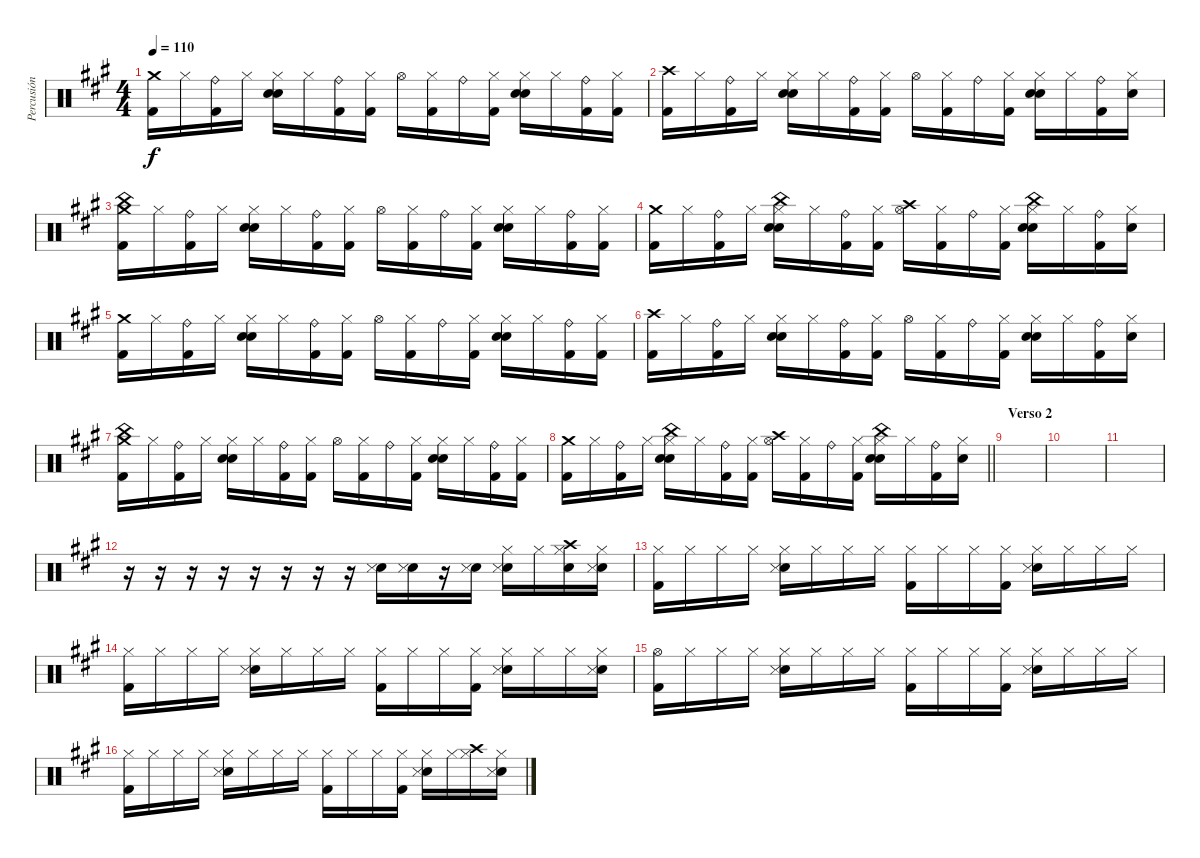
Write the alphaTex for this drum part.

\track ("Percusión" "Percusión") {instrument percussion}
\staff {score}
\articulation defaults
\ts (4 4)
\tempo 110
\clef neutral
\ks a
("Crash medium (hit)" "Kick (hit) 2").16{dy f} "Hi-Hat (closed)".16 ("Ride (bell)" "Kick (hit) 2").16 "Hi-Hat (closed)".16 ("Hi-Hat (closed)" "Hand Clap (hit)" "Electric Snare (hit)").16 "Hi-Hat (closed)".16 ("Ride (bell)" "Kick (hit) 2").16 ("Hi-Hat (closed)" "Kick (hit) 2").16 "Hi-Hat (open)".16 ("Hi-Hat (closed)" "Kick (hit) 2").16 "Ride (bell)".16 ("Hi-Hat (closed)" "Kick (hit) 2").16 ("Hi-Hat (closed)" "Hand Clap (hit)" "Electric Snare (hit)").16 "Hi-Hat (closed)".16 ("Ride (bell)" "Kick (hit) 2").16 ("Hi-Hat (closed)" "Kick (hit) 2").16 |
("Crash high (hit)" "Kick (hit) 2").16 "Hi-Hat (closed)".16 ("Ride (bell)" "Kick (hit) 2").16 "Hi-Hat (closed)".16 ("Hi-Hat (closed)" "Hand Clap (hit)" "Electric Snare (hit)").16 "Hi-Hat (closed)".16 ("Ride (bell)" "Kick (hit) 2").16 ("Hi-Hat (closed)" "Kick (hit) 2").16 "Hi-Hat (open)".16 ("Hi-Hat (closed)" "Kick (hit) 2").16 "Ride (bell)".16 ("Hi-Hat (closed)" "Kick (hit) 2").16 ("Hi-Hat (closed)" "Hand Clap (hit)" "Electric Snare (hit)").16 "Hi-Hat (closed)".16 ("Ride (bell)" "Kick (hit) 2").16 ("Hi-Hat (closed)" "Hand Clap (hit)").16 |
("Crash medium (hit)" "China (hit)" "Kick (hit) 2").16 "Hi-Hat (closed)".16 ("Ride (bell)" "Kick (hit) 2").16 "Hi-Hat (closed)".16 ("Hi-Hat (closed)" "Hand Clap (hit)" "Electric Snare (hit)").16 "Hi-Hat (closed)".16 ("Ride (bell)" "Kick (hit) 2").16 ("Hi-Hat (closed)" "Kick (hit) 2").16 "Hi-Hat (open)".16 ("Hi-Hat (closed)" "Kick (hit) 2").16 "Ride (bell)".16 ("Hi-Hat (closed)" "Kick (hit) 2").16 ("Hi-Hat (closed)" "Hand Clap (hit)" "Electric Snare (hit)").16 "Hi-Hat (closed)".16 ("Ride (bell)" "Kick (hit) 2").16 ("Hi-Hat (closed)" "Kick (hit) 2").16 |
("Crash medium (hit)" "Kick (hit) 2").16 "Hi-Hat (closed)".16 ("Ride (bell)" "Kick (hit) 2").16 "Hi-Hat (closed)".16 ("China (hit)" "Hi-Hat (closed)" "Hand Clap (hit)" "Electric Snare (hit)").16 "Hi-Hat (closed)".16 ("Ride (bell)" "Kick (hit) 2").16 ("Hi-Hat (closed)" "Kick (hit) 2").16 ("Crash high (hit)" "Hi-Hat (open)").16 ("Hi-Hat (closed)" "Kick (hit) 2").16 "Ride (bell)".16 ("Hi-Hat (closed)" "Kick (hit) 2").16 ("China (hit)" "Hi-Hat (closed)" "Hand Clap (hit)" "Electric Snare (hit)").16 "Hi-Hat (closed)".16 ("Ride (bell)" "Kick (hit) 2").16 ("Hi-Hat (closed)" "Hand Clap (hit)").16 |
("Crash medium (hit)" "Kick (hit) 2").16 "Hi-Hat (closed)".16 ("Ride (bell)" "Kick (hit) 2").16 "Hi-Hat (closed)".16 ("Hi-Hat (closed)" "Hand Clap (hit)" "Electric Snare (hit)").16 "Hi-Hat (closed)".16 ("Ride (bell)" "Kick (hit) 2").16 ("Hi-Hat (closed)" "Kick (hit) 2").16 "Hi-Hat (open)".16 ("Hi-Hat (closed)" "Kick (hit) 2").16 "Ride (bell)".16 ("Hi-Hat (closed)" "Kick (hit) 2").16 ("Hi-Hat (closed)" "Hand Clap (hit)" "Electric Snare (hit)").16 "Hi-Hat (closed)".16 ("Ride (bell)" "Kick (hit) 2").16 ("Hi-Hat (closed)" "Kick (hit) 2").16 |
("Crash high (hit)" "Kick (hit) 2").16 "Hi-Hat (closed)".16 ("Ride (bell)" "Kick (hit) 2").16 "Hi-Hat (closed)".16 ("Hi-Hat (closed)" "Hand Clap (hit)" "Electric Snare (hit)").16 "Hi-Hat (closed)".16 ("Ride (bell)" "Kick (hit) 2").16 ("Hi-Hat (closed)" "Kick (hit) 2").16 "Hi-Hat (open)".16 ("Hi-Hat (closed)" "Kick (hit) 2").16 "Ride (bell)".16 ("Hi-Hat (closed)" "Kick (hit) 2").16 ("Hi-Hat (closed)" "Hand Clap (hit)" "Electric Snare (hit)").16 "Hi-Hat (closed)".16 ("Ride (bell)" "Kick (hit) 2").16 ("Hi-Hat (closed)" "Hand Clap (hit)").16 |
("Crash medium (hit)" "China (hit)" "Kick (hit) 2").16 "Hi-Hat (closed)".16 ("Ride (bell)" "Kick (hit) 2").16 "Hi-Hat (closed)".16 ("Hi-Hat (closed)" "Hand Clap (hit)" "Electric Snare (hit)").16 "Hi-Hat (closed)".16 ("Ride (bell)" "Kick (hit) 2").16 ("Hi-Hat (closed)" "Kick (hit) 2").16 "Hi-Hat (open)".16 ("Hi-Hat (closed)" "Kick (hit) 2").16 "Ride (bell)".16 ("Hi-Hat (closed)" "Kick (hit) 2").16 ("Hi-Hat (closed)" "Hand Clap (hit)" "Electric Snare (hit)").16 "Hi-Hat (closed)".16 ("Ride (bell)" "Kick (hit) 2").16 ("Hi-Hat (closed)" "Kick (hit) 2").16 |
\barLineRight lightlight
("Crash medium (hit)" "Kick (hit) 2").16 "Hi-Hat (closed)".16 ("Ride (bell)" "Kick (hit) 2").16 "Hi-Hat (closed)".16 ("China (hit)" "Hi-Hat (closed)" "Hand Clap (hit)" "Electric Snare (hit)").16 "Hi-Hat (closed)".16 ("Ride (bell)" "Kick (hit) 2").16 ("Hi-Hat (closed)" "Kick (hit) 2").16 ("Crash high (hit)" "Hi-Hat (open)").16 ("Hi-Hat (closed)" "Kick (hit) 2").16 "Ride (bell)".16 ("Hi-Hat (closed)" "Kick (hit) 2").16 ("China (hit)" "Hi-Hat (closed)" "Hand Clap (hit)" "Electric Snare (hit)").16 "Hi-Hat (closed)".16 ("Ride (bell)" "Kick (hit) 2").16 ("Hi-Hat (closed)" "Hand Clap (hit)").16 |
\section ("" "Verso 2")
|
|
|
r.16 r.16 r.16 r.16 r.16 r.16 r.16 r.16 ("Hand Clap (hit)" "Snare (side stick) 3").16 ("Hand Clap (hit)" "Snare (side stick) 3").16 r.16 ("Hand Clap (hit)" "Snare (side stick) 3").16 ("Hi-Hat (closed)" "Hand Clap (hit)" "Snare (side stick) 3").16 "Hi-Hat (closed)".16 ("Crash high (hit)" "Hi-Hat (closed)" "Hand Clap (hit)").16 ("Hi-Hat (closed)" "Hand Clap (hit)" "Snare (side stick) 3").16 |
("Hi-Hat (closed)" "Kick (hit) 2").16 "Hi-Hat (closed)".16 "Hi-Hat (closed)".16 "Hi-Hat (closed)".16 ("Hi-Hat (closed)" "Hand Clap (hit)" "Snare (side stick) 3").16 "Hi-Hat (closed)".16 "Hi-Hat (closed)".16 "Hi-Hat (closed)".16 ("Hi-Hat (closed)" "Kick (hit) 2").16 "Hi-Hat (closed)".16 "Hi-Hat (closed)".16 ("Hi-Hat (closed)" "Kick (hit) 2").16 ("Hi-Hat (closed)" "Hand Clap (hit)" "Snare (side stick) 3").16 "Hi-Hat (closed)".16 "Hi-Hat (closed)".16 "Hi-Hat (closed)".16 |
("Hi-Hat (closed)" "Kick (hit) 2").16 "Hi-Hat (closed)".16 "Hi-Hat (closed)".16 "Hi-Hat (closed)".16 ("Hi-Hat (closed)" "Hand Clap (hit)" "Snare (side stick) 3").16 "Hi-Hat (closed)".16 "Hi-Hat (closed)".16 "Hi-Hat (closed)".16 ("Hi-Hat (closed)" "Kick (hit) 2").16 "Hi-Hat (closed)".16 "Hi-Hat (closed)".16 ("Hi-Hat (closed)" "Kick (hit) 2").16 ("Hi-Hat (closed)" "Hand Clap (hit)" "Snare (side stick) 3").16 "Hi-Hat (closed)".16 "Hi-Hat (closed)".16 ("Hi-Hat (closed)" "Hand Clap (hit)" "Snare (side stick) 3").16 |
("Hi-Hat (open)" "Kick (hit) 2").16 "Hi-Hat (closed)".16 "Hi-Hat (closed)".16 "Hi-Hat (closed)".16 ("Hi-Hat (closed)" "Hand Clap (hit)" "Snare (side stick) 3").16 "Hi-Hat (closed)".16 "Hi-Hat (closed)".16 "Hi-Hat (closed)".16 ("Hi-Hat (closed)" "Kick (hit) 2").16 "Hi-Hat (closed)".16 "Hi-Hat (closed)".16 ("Hi-Hat (closed)" "Kick (hit) 2").16 ("Hi-Hat (closed)" "Hand Clap (hit)" "Snare (side stick) 3").16 "Hi-Hat (closed)".16 "Hi-Hat (closed)".16 "Hi-Hat (closed)".16 |
("Hi-Hat (closed)" "Kick (hit) 2").16 "Hi-Hat (closed)".16 "Hi-Hat (closed)".16 "Hi-Hat (closed)".16 ("Hi-Hat (closed)" "Hand Clap (hit)" "Snare (side stick) 3").16 "Hi-Hat (closed)".16 "Hi-Hat (closed)".16 "Hi-Hat (closed)".16 ("Hi-Hat (closed)" "Kick (hit) 2").16 "Hi-Hat (closed)".16 "Hi-Hat (closed)".16 ("Hi-Hat (closed)" "Kick (hit) 2").16 ("Hi-Hat (closed)" "Hand Clap (hit)" "Snare (side stick) 3").16 "Hi-Hat (closed)".16 ("Crash high (hit)" "Hi-Hat (closed)").16 ("Hi-Hat (closed)" "Hand Clap (hit)" "Snare (side stick) 3").16
